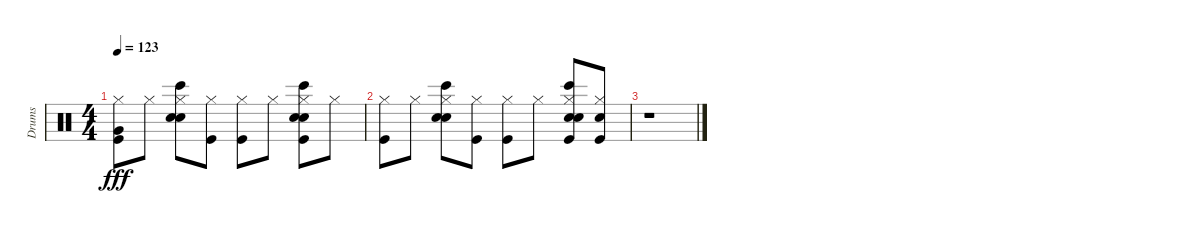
\track ("Drums" "Drums") {instrument percussion}
\staff {score}
\articulation defaults
\ts (4 4)
\tempo 123
\clef neutral
\ks c
("Kick (hit)" "Hi-Hat (closed)" "Very Low Tom (hit)").8{dy fff} "Hi-Hat (closed)".8 ("Hi-Hat (closed)" "Bongo High (hit)" "Hand Clap (hit)" "Electric Snare (hit)").8 ("Kick (hit)" "Hi-Hat (closed)").8 ("Hi-Hat (closed)" "Kick (hit)").8 "Hi-Hat (closed)".8 ("Hi-Hat (closed)" "Kick (hit)" "Electric Snare (hit)" "Hand Clap (hit)" "Bongo High (hit)").8 "Hi-Hat (closed)".8 |
("Hi-Hat (closed)" "Kick (hit)").8 "Hi-Hat (closed)".8 ("Hi-Hat (closed)" "Electric Snare (hit)" "Bongo High (hit)" "Hand Clap (hit)").8 ("Hi-Hat (closed)" "Kick (hit)").8 ("Hi-Hat (closed)" "Kick (hit)").8 "Hi-Hat (closed)".8 ("Hi-Hat (closed)" "Kick (hit)" "Electric Snare (hit)" "Bongo High (hit)" "Hand Clap (hit)").8 ("Kick (hit)" "Electric Snare (hit)" "Hi-Hat (closed)").8 |
r.1
